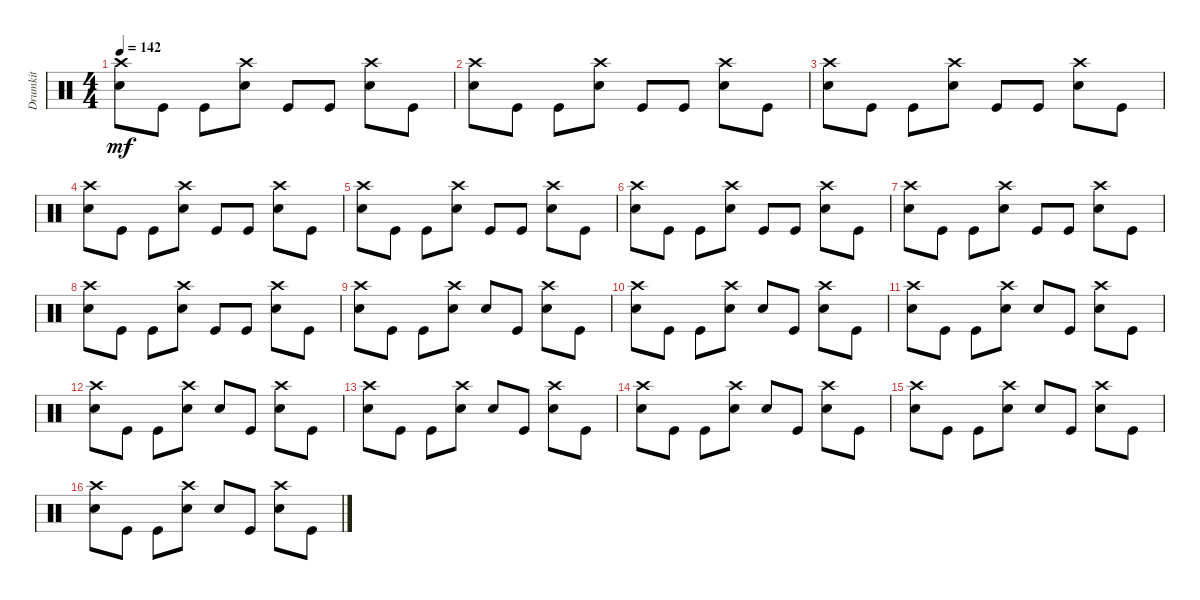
\track ("Drumkit" "Drumkit") {instrument percussion}
\staff {score}
\articulation defaults
\ts (4 4)
\tempo 142
\clef neutral
\ks c
("Snare (hit) 2" "Crash high (hit)").8{dy mf} "Kick (hit)".8 "Kick (hit)".8 ("Snare (hit) 2" "Crash high (hit)").8 "Kick (hit)".8 "Kick (hit)".8 ("Snare (hit) 2" "Crash high (hit)").8 "Kick (hit)".8 |
("Snare (hit) 2" "Crash high (hit)").8 "Kick (hit)".8 "Kick (hit)".8 ("Snare (hit) 2" "Crash high (hit)").8 "Kick (hit)".8 "Kick (hit)".8 ("Snare (hit) 2" "Crash high (hit)").8 "Kick (hit)".8 |
("Snare (hit) 2" "Crash high (hit)").8 "Kick (hit)".8 "Kick (hit)".8 ("Snare (hit) 2" "Crash high (hit)").8 "Kick (hit)".8 "Kick (hit)".8 ("Snare (hit) 2" "Crash high (hit)").8 "Kick (hit)".8 |
("Snare (hit) 2" "Crash high (hit)").8 "Kick (hit)".8 "Kick (hit)".8 ("Snare (hit) 2" "Crash high (hit)").8 "Kick (hit)".8 "Kick (hit)".8 ("Snare (hit) 2" "Crash high (hit)").8 "Kick (hit)".8 |
("Snare (hit) 2" "Crash high (hit)").8 "Kick (hit)".8 "Kick (hit)".8 ("Snare (hit) 2" "Crash high (hit)").8 "Kick (hit)".8 "Kick (hit)".8 ("Snare (hit) 2" "Crash high (hit)").8 "Kick (hit)".8 |
("Snare (hit) 2" "Crash high (hit)").8 "Kick (hit)".8 "Kick (hit)".8 ("Snare (hit) 2" "Crash high (hit)").8 "Kick (hit)".8 "Kick (hit)".8 ("Snare (hit) 2" "Crash high (hit)").8 "Kick (hit)".8 |
("Snare (hit) 2" "Crash high (hit)").8 "Kick (hit)".8 "Kick (hit)".8 ("Snare (hit) 2" "Crash high (hit)").8 "Kick (hit)".8 "Kick (hit)".8 ("Snare (hit) 2" "Crash high (hit)").8 "Kick (hit)".8 |
("Snare (hit) 2" "Crash high (hit)").8 "Kick (hit)".8 "Kick (hit)".8 ("Snare (hit) 2" "Crash high (hit)").8 "Kick (hit)".8 "Kick (hit)".8 ("Snare (hit) 2" "Crash high (hit)").8 "Kick (hit)".8 |
("Snare (hit) 2" "Crash high (hit)").8 "Kick (hit)".8 "Kick (hit)".8 ("Snare (hit) 2" "Crash high (hit)").8 "Snare (hit) 2".8 "Kick (hit)".8 ("Snare (hit) 2" "Crash high (hit)").8 "Kick (hit)".8 |
("Snare (hit) 2" "Crash high (hit)").8 "Kick (hit)".8 "Kick (hit)".8 ("Snare (hit) 2" "Crash high (hit)").8 "Snare (hit) 2".8 "Kick (hit)".8 ("Snare (hit) 2" "Crash high (hit)").8 "Kick (hit)".8 |
("Snare (hit) 2" "Crash high (hit)").8 "Kick (hit)".8 "Kick (hit)".8 ("Snare (hit) 2" "Crash high (hit)").8 "Snare (hit) 2".8 "Kick (hit)".8 ("Snare (hit) 2" "Crash high (hit)").8 "Kick (hit)".8 |
("Snare (hit) 2" "Crash high (hit)").8 "Kick (hit)".8 "Kick (hit)".8 ("Snare (hit) 2" "Crash high (hit)").8 "Snare (hit) 2".8 "Kick (hit)".8 ("Snare (hit) 2" "Crash high (hit)").8 "Kick (hit)".8 |
("Snare (hit) 2" "Crash high (hit)").8 "Kick (hit)".8 "Kick (hit)".8 ("Snare (hit) 2" "Crash high (hit)").8 "Snare (hit) 2".8 "Kick (hit)".8 ("Snare (hit) 2" "Crash high (hit)").8 "Kick (hit)".8 |
("Snare (hit) 2" "Crash high (hit)").8 "Kick (hit)".8 "Kick (hit)".8 ("Snare (hit) 2" "Crash high (hit)").8 "Snare (hit) 2".8 "Kick (hit)".8 ("Snare (hit) 2" "Crash high (hit)").8 "Kick (hit)".8 |
("Snare (hit) 2" "Crash high (hit)").8 "Kick (hit)".8 "Kick (hit)".8 ("Snare (hit) 2" "Crash high (hit)").8 "Snare (hit) 2".8 "Kick (hit)".8 ("Snare (hit) 2" "Crash high (hit)").8 "Kick (hit)".8 |
("Snare (hit) 2" "Crash high (hit)").8 "Kick (hit)".8 "Kick (hit)".8 ("Snare (hit) 2" "Crash high (hit)").8 "Snare (hit) 2".8 "Kick (hit)".8 ("Snare (hit) 2" "Crash high (hit)").8 "Kick (hit)".8
